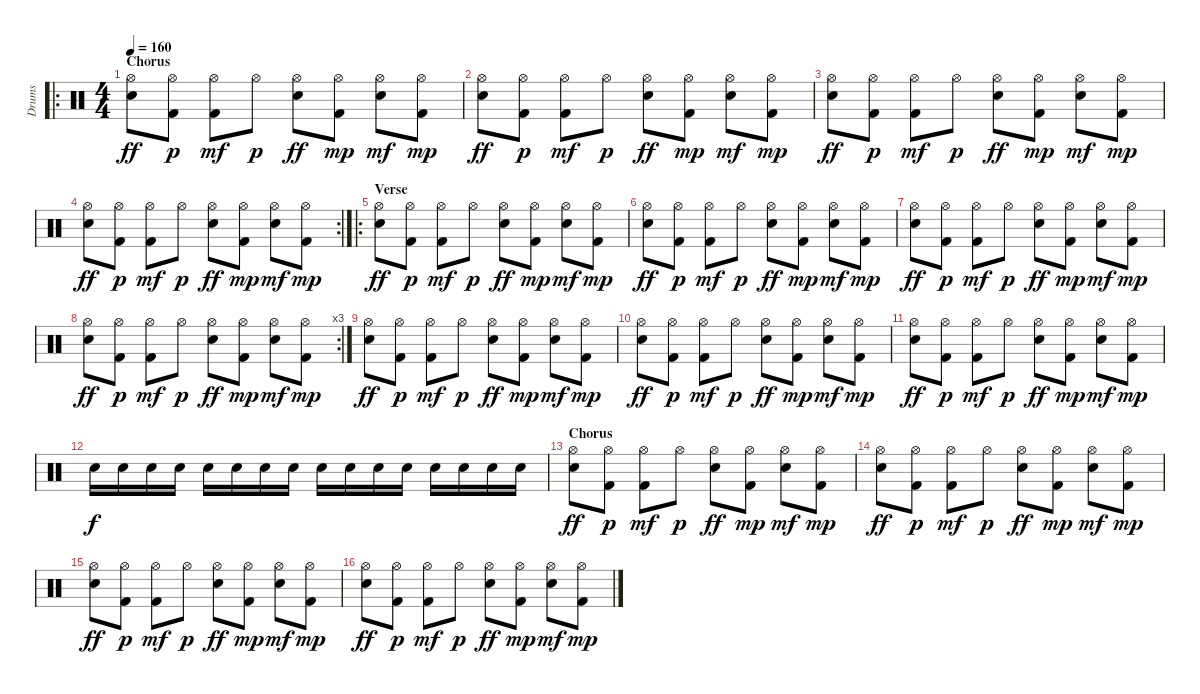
\track ("Drums" "Drums") {instrument percussion}
\staff {score}
\articulation defaults
\ro
\ts (4 4)
\section ("" "Chorus")
\tempo 160
\clef neutral
\ks c
("Electric Snare (hit)" "Hi-Hat (open)").8{dy ff} ("Kick (hit) 2" "Hi-Hat (open)").8{dy p} ("Kick (hit) 2" "Hi-Hat (open)").8{dy mf} "Hi-Hat (open)".8{dy p} ("Electric Snare (hit)" "Hi-Hat (open)").8{dy ff} ("Kick (hit) 2" "Hi-Hat (open)").8{dy mp} ("Electric Snare (hit)" "Hi-Hat (open)").8{dy mf} ("Kick (hit) 2" "Hi-Hat (open)").8{dy mp} |
("Electric Snare (hit)" "Hi-Hat (open)").8{dy ff} ("Kick (hit) 2" "Hi-Hat (open)").8{dy p} ("Kick (hit) 2" "Hi-Hat (open)").8{dy mf} "Hi-Hat (open)".8{dy p} ("Electric Snare (hit)" "Hi-Hat (open)").8{dy ff} ("Kick (hit) 2" "Hi-Hat (open)").8{dy mp} ("Electric Snare (hit)" "Hi-Hat (open)").8{dy mf} ("Kick (hit) 2" "Hi-Hat (open)").8{dy mp} |
("Electric Snare (hit)" "Hi-Hat (open)").8{dy ff} ("Kick (hit) 2" "Hi-Hat (open)").8{dy p} ("Kick (hit) 2" "Hi-Hat (open)").8{dy mf} "Hi-Hat (open)".8{dy p} ("Electric Snare (hit)" "Hi-Hat (open)").8{dy ff} ("Kick (hit) 2" "Hi-Hat (open)").8{dy mp} ("Electric Snare (hit)" "Hi-Hat (open)").8{dy mf} ("Kick (hit) 2" "Hi-Hat (open)").8{dy mp} |
\rc 2
("Electric Snare (hit)" "Hi-Hat (open)").8{dy ff} ("Kick (hit) 2" "Hi-Hat (open)").8{dy p} ("Kick (hit) 2" "Hi-Hat (open)").8{dy mf} "Hi-Hat (open)".8{dy p} ("Electric Snare (hit)" "Hi-Hat (open)").8{dy ff} ("Kick (hit) 2" "Hi-Hat (open)").8{dy mp} ("Electric Snare (hit)" "Hi-Hat (open)").8{dy mf} ("Kick (hit) 2" "Hi-Hat (open)").8{dy mp} |
\ro
\section ("" "Verse")
("Electric Snare (hit)" "Hi-Hat (open)").8{dy ff} ("Kick (hit) 2" "Hi-Hat (open)").8{dy p} ("Kick (hit) 2" "Hi-Hat (open)").8{dy mf} "Hi-Hat (open)".8{dy p} ("Electric Snare (hit)" "Hi-Hat (open)").8{dy ff} ("Kick (hit) 2" "Hi-Hat (open)").8{dy mp} ("Electric Snare (hit)" "Hi-Hat (open)").8{dy mf} ("Kick (hit) 2" "Hi-Hat (open)").8{dy mp} |
("Electric Snare (hit)" "Hi-Hat (open)").8{dy ff} ("Kick (hit) 2" "Hi-Hat (open)").8{dy p} ("Kick (hit) 2" "Hi-Hat (open)").8{dy mf} "Hi-Hat (open)".8{dy p} ("Electric Snare (hit)" "Hi-Hat (open)").8{dy ff} ("Kick (hit) 2" "Hi-Hat (open)").8{dy mp} ("Electric Snare (hit)" "Hi-Hat (open)").8{dy mf} ("Kick (hit) 2" "Hi-Hat (open)").8{dy mp} |
("Electric Snare (hit)" "Hi-Hat (open)").8{dy ff} ("Kick (hit) 2" "Hi-Hat (open)").8{dy p} ("Kick (hit) 2" "Hi-Hat (open)").8{dy mf} "Hi-Hat (open)".8{dy p} ("Electric Snare (hit)" "Hi-Hat (open)").8{dy ff} ("Kick (hit) 2" "Hi-Hat (open)").8{dy mp} ("Electric Snare (hit)" "Hi-Hat (open)").8{dy mf} ("Kick (hit) 2" "Hi-Hat (open)").8{dy mp} |
\rc 3
("Electric Snare (hit)" "Hi-Hat (open)").8{dy ff} ("Kick (hit) 2" "Hi-Hat (open)").8{dy p} ("Kick (hit) 2" "Hi-Hat (open)").8{dy mf} "Hi-Hat (open)".8{dy p} ("Electric Snare (hit)" "Hi-Hat (open)").8{dy ff} ("Kick (hit) 2" "Hi-Hat (open)").8{dy mp} ("Electric Snare (hit)" "Hi-Hat (open)").8{dy mf} ("Kick (hit) 2" "Hi-Hat (open)").8{dy mp} |
("Electric Snare (hit)" "Hi-Hat (open)").8{dy ff} ("Kick (hit) 2" "Hi-Hat (open)").8{dy p} ("Kick (hit) 2" "Hi-Hat (open)").8{dy mf} "Hi-Hat (open)".8{dy p} ("Electric Snare (hit)" "Hi-Hat (open)").8{dy ff} ("Kick (hit) 2" "Hi-Hat (open)").8{dy mp} ("Electric Snare (hit)" "Hi-Hat (open)").8{dy mf} ("Kick (hit) 2" "Hi-Hat (open)").8{dy mp} |
("Electric Snare (hit)" "Hi-Hat (open)").8{dy ff} ("Kick (hit) 2" "Hi-Hat (open)").8{dy p} ("Kick (hit) 2" "Hi-Hat (open)").8{dy mf} "Hi-Hat (open)".8{dy p} ("Electric Snare (hit)" "Hi-Hat (open)").8{dy ff} ("Kick (hit) 2" "Hi-Hat (open)").8{dy mp} ("Electric Snare (hit)" "Hi-Hat (open)").8{dy mf} ("Kick (hit) 2" "Hi-Hat (open)").8{dy mp} |
("Electric Snare (hit)" "Hi-Hat (open)").8{dy ff} ("Kick (hit) 2" "Hi-Hat (open)").8{dy p} ("Kick (hit) 2" "Hi-Hat (open)").8{dy mf} "Hi-Hat (open)".8{dy p} ("Electric Snare (hit)" "Hi-Hat (open)").8{dy ff} ("Kick (hit) 2" "Hi-Hat (open)").8{dy mp} ("Electric Snare (hit)" "Hi-Hat (open)").8{dy mf} ("Kick (hit) 2" "Hi-Hat (open)").8{dy mp} |
"Electric Snare (hit)".16{dy f} "Electric Snare (hit)".16 "Electric Snare (hit)".16 "Electric Snare (hit)".16 "Electric Snare (hit)".16 "Electric Snare (hit)".16 "Electric Snare (hit)".16 "Electric Snare (hit)".16 "Electric Snare (hit)".16 "Electric Snare (hit)".16 "Electric Snare (hit)".16 "Electric Snare (hit)".16 "Electric Snare (hit)".16 "Electric Snare (hit)".16 "Electric Snare (hit)".16 "Electric Snare (hit)".16 |
\section ("" "Chorus")
("Electric Snare (hit)" "Hi-Hat (open)").8{dy ff} ("Kick (hit) 2" "Hi-Hat (open)").8{dy p} ("Kick (hit) 2" "Hi-Hat (open)").8{dy mf} "Hi-Hat (open)".8{dy p} ("Electric Snare (hit)" "Hi-Hat (open)").8{dy ff} ("Kick (hit) 2" "Hi-Hat (open)").8{dy mp} ("Electric Snare (hit)" "Hi-Hat (open)").8{dy mf} ("Kick (hit) 2" "Hi-Hat (open)").8{dy mp} |
("Electric Snare (hit)" "Hi-Hat (open)").8{dy ff} ("Kick (hit) 2" "Hi-Hat (open)").8{dy p} ("Kick (hit) 2" "Hi-Hat (open)").8{dy mf} "Hi-Hat (open)".8{dy p} ("Electric Snare (hit)" "Hi-Hat (open)").8{dy ff} ("Kick (hit) 2" "Hi-Hat (open)").8{dy mp} ("Electric Snare (hit)" "Hi-Hat (open)").8{dy mf} ("Kick (hit) 2" "Hi-Hat (open)").8{dy mp} |
("Electric Snare (hit)" "Hi-Hat (open)").8{dy ff} ("Kick (hit) 2" "Hi-Hat (open)").8{dy p} ("Kick (hit) 2" "Hi-Hat (open)").8{dy mf} "Hi-Hat (open)".8{dy p} ("Electric Snare (hit)" "Hi-Hat (open)").8{dy ff} ("Kick (hit) 2" "Hi-Hat (open)").8{dy mp} ("Electric Snare (hit)" "Hi-Hat (open)").8{dy mf} ("Kick (hit) 2" "Hi-Hat (open)").8{dy mp} |
("Electric Snare (hit)" "Hi-Hat (open)").8{dy ff} ("Kick (hit) 2" "Hi-Hat (open)").8{dy p} ("Kick (hit) 2" "Hi-Hat (open)").8{dy mf} "Hi-Hat (open)".8{dy p} ("Electric Snare (hit)" "Hi-Hat (open)").8{dy ff} ("Kick (hit) 2" "Hi-Hat (open)").8{dy mp} ("Electric Snare (hit)" "Hi-Hat (open)").8{dy mf} ("Kick (hit) 2" "Hi-Hat (open)").8{dy mp}
